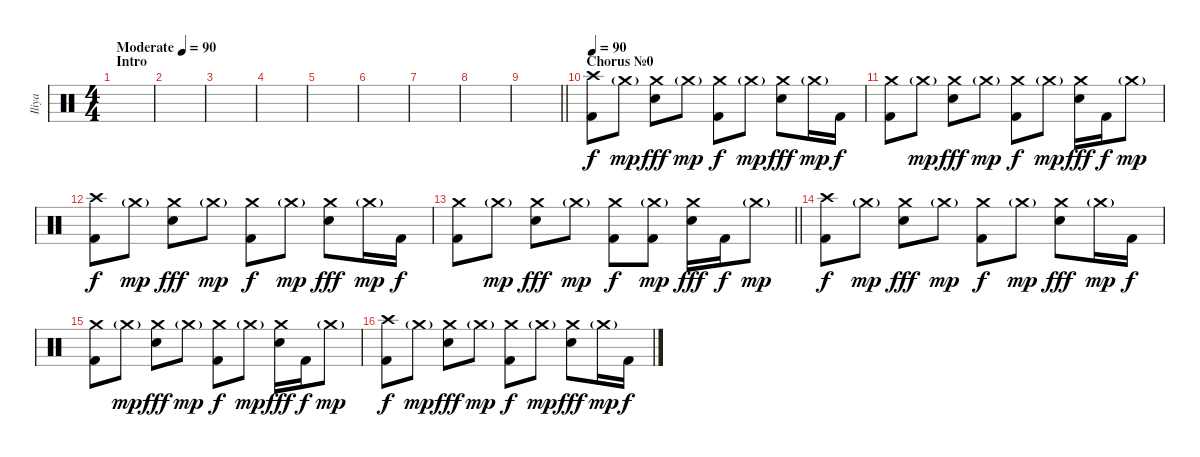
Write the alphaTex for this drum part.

\track ("Iliya" "Iliya") {instrument percussion}
\staff {score}
\articulation defaults
\ts (4 4)
\section ("" "Intro")
\tempo (90 "Moderate")
\clef neutral
\ks c
|
|
|
|
|
|
|
|
\barLineRight lightlight
|
\section ("" "Chorus №0")
\tempo 90
("Crash high (hit)" "Kick (hit) 2").8 "Crash medium (hit)"{g}.8{dy mp} ("Crash medium (hit)" "Snare (hit) 2").8{dy fff} "Crash medium (hit)"{g}.8{dy mp} ("Crash medium (hit)" "Kick (hit) 2").8{dy f} "Crash medium (hit)"{g}.8{dy mp} ("Crash medium (hit)" "Snare (hit) 2").8{dy fff} "Crash medium (hit)"{g}.16{dy mp} "Kick (hit) 2".16{dy f} |
("Crash medium (hit)" "Kick (hit) 2").8 "Crash medium (hit)"{g}.8{dy mp} ("Crash medium (hit)" "Snare (hit) 2").8{dy fff} "Crash medium (hit)"{g}.8{dy mp} ("Crash medium (hit)" "Kick (hit) 2").8{dy f} "Crash medium (hit)"{g}.8{dy mp} ("Crash medium (hit)" "Snare (hit) 2").16{dy fff} "Kick (hit) 2".16{dy f} "Crash medium (hit)"{g}.8{dy mp} |
("Crash high (hit)" "Kick (hit) 2").8{dy f} "Crash medium (hit)"{g}.8{dy mp} ("Crash medium (hit)" "Snare (hit) 2").8{dy fff} "Crash medium (hit)"{g}.8{dy mp} ("Crash medium (hit)" "Kick (hit) 2").8{dy f} "Crash medium (hit)"{g}.8{dy mp} ("Crash medium (hit)" "Snare (hit) 2").8{dy fff} "Crash medium (hit)"{g}.16{dy mp} "Kick (hit) 2".16{dy f} |
\barLineRight lightlight
("Crash medium (hit)" "Kick (hit) 2").8 "Crash medium (hit)"{g}.8{dy mp} ("Crash medium (hit)" "Snare (hit) 2").8{dy fff} "Crash medium (hit)"{g}.8{dy mp} ("Crash medium (hit)" "Kick (hit) 2").8{dy f} ("Crash medium (hit)"{g} "Kick (hit) 2").8{dy mp} ("Crash medium (hit)" "Snare (hit) 2").16{dy fff} "Kick (hit) 2".16{dy f} "Crash medium (hit)"{g}.8{dy mp} |
("Crash high (hit)" "Kick (hit) 2").8{dy f} "Crash medium (hit)"{g}.8{dy mp} ("Crash medium (hit)" "Snare (hit) 2").8{dy fff} "Crash medium (hit)"{g}.8{dy mp} ("Crash medium (hit)" "Kick (hit) 2").8{dy f} "Crash medium (hit)"{g}.8{dy mp} ("Crash medium (hit)" "Snare (hit) 2").8{dy fff} "Crash medium (hit)"{g}.16{dy mp} "Kick (hit) 2".16{dy f} |
("Crash medium (hit)" "Kick (hit) 2").8 "Crash medium (hit)"{g}.8{dy mp} ("Crash medium (hit)" "Snare (hit) 2").8{dy fff} "Crash medium (hit)"{g}.8{dy mp} ("Crash medium (hit)" "Kick (hit) 2").8{dy f} "Crash medium (hit)"{g}.8{dy mp} ("Crash medium (hit)" "Snare (hit) 2").16{dy fff} "Kick (hit) 2".16{dy f} "Crash medium (hit)"{g}.8{dy mp} |
("Crash high (hit)" "Kick (hit) 2").8{dy f} "Crash medium (hit)"{g}.8{dy mp} ("Crash medium (hit)" "Snare (hit) 2").8{dy fff} "Crash medium (hit)"{g}.8{dy mp} ("Crash medium (hit)" "Kick (hit) 2").8{dy f} "Crash medium (hit)"{g}.8{dy mp} ("Crash medium (hit)" "Snare (hit) 2").8{dy fff} "Crash medium (hit)"{g}.16{dy mp} "Kick (hit) 2".16{dy f}
